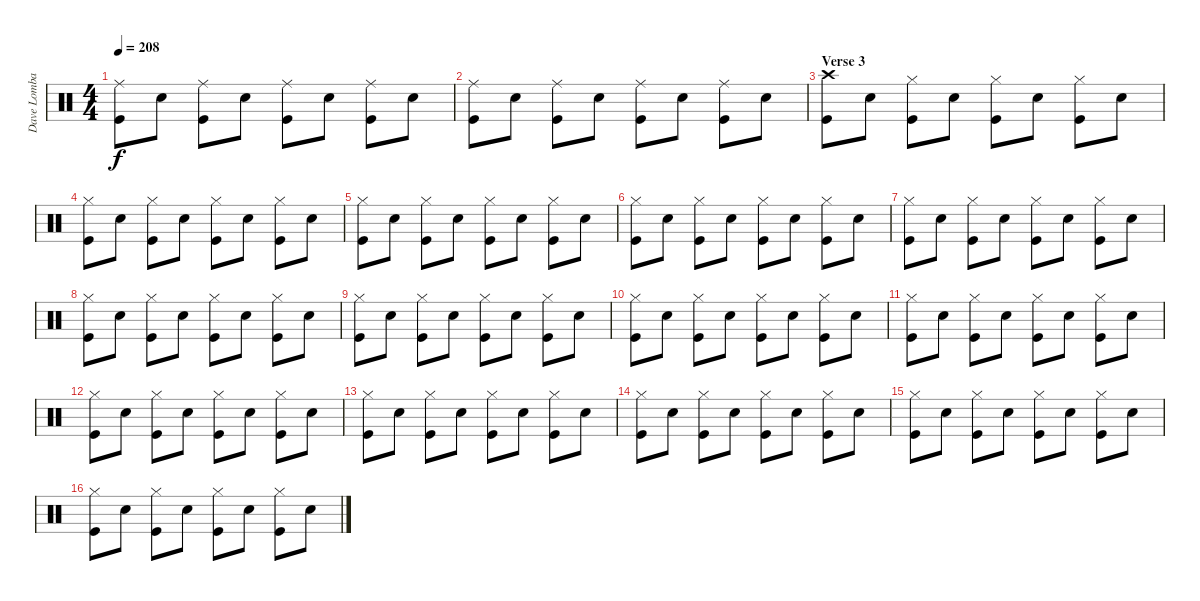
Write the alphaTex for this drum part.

\track ("Dave Lombardo" "Dave Lomba") {instrument percussion}
\staff {score}
\articulation defaults
\ts (4 4)
\tempo 208
\clef neutral
\ks c
("Ride (middle)" "Kick (hit)").8{dy f} "Electric Snare (hit)".8 ("Ride (middle)" "Kick (hit)").8 "Electric Snare (hit)".8 ("Ride (middle)" "Kick (hit)").8 "Electric Snare (hit)".8 ("Ride (middle)" "Kick (hit)").8 "Electric Snare (hit)".8 |
("Ride (middle)" "Kick (hit)").8 "Electric Snare (hit)".8 ("Ride (middle)" "Kick (hit)").8 "Electric Snare (hit)".8 ("Ride (middle)" "Kick (hit)").8 "Electric Snare (hit)".8 ("Ride (middle)" "Kick (hit)").8 "Electric Snare (hit)".8 |
\section ("" "Verse 3")
("Crash high (hit)" "Kick (hit)").8 "Electric Snare (hit)".8 ("Hi-Hat (closed)" "Kick (hit)").8 "Electric Snare (hit)".8 ("Hi-Hat (closed)" "Kick (hit)").8 "Electric Snare (hit)".8 ("Hi-Hat (closed)" "Kick (hit)").8 "Electric Snare (hit)".8 |
("Hi-Hat (closed)" "Kick (hit)").8 "Electric Snare (hit)".8 ("Hi-Hat (closed)" "Kick (hit)").8 "Electric Snare (hit)".8 ("Hi-Hat (closed)" "Kick (hit)").8 "Electric Snare (hit)".8 ("Hi-Hat (closed)" "Kick (hit)").8 "Electric Snare (hit)".8 |
("Hi-Hat (closed)" "Kick (hit)").8 "Electric Snare (hit)".8 ("Hi-Hat (closed)" "Kick (hit)").8 "Electric Snare (hit)".8 ("Hi-Hat (closed)" "Kick (hit)").8 "Electric Snare (hit)".8 ("Hi-Hat (closed)" "Kick (hit)").8 "Electric Snare (hit)".8 |
("Hi-Hat (closed)" "Kick (hit)").8 "Electric Snare (hit)".8 ("Hi-Hat (closed)" "Kick (hit)").8 "Electric Snare (hit)".8 ("Hi-Hat (closed)" "Kick (hit)").8 "Electric Snare (hit)".8 ("Hi-Hat (closed)" "Kick (hit)").8 "Electric Snare (hit)".8 |
("Hi-Hat (closed)" "Kick (hit)").8 "Electric Snare (hit)".8 ("Hi-Hat (closed)" "Kick (hit)").8 "Electric Snare (hit)".8 ("Hi-Hat (closed)" "Kick (hit)").8 "Electric Snare (hit)".8 ("Hi-Hat (closed)" "Kick (hit)").8 "Electric Snare (hit)".8 |
("Hi-Hat (closed)" "Kick (hit)").8 "Electric Snare (hit)".8 ("Hi-Hat (closed)" "Kick (hit)").8 "Electric Snare (hit)".8 ("Hi-Hat (closed)" "Kick (hit)").8 "Electric Snare (hit)".8 ("Hi-Hat (closed)" "Kick (hit)").8 "Electric Snare (hit)".8 |
("Hi-Hat (closed)" "Kick (hit)").8 "Electric Snare (hit)".8 ("Hi-Hat (closed)" "Kick (hit)").8 "Electric Snare (hit)".8 ("Hi-Hat (closed)" "Kick (hit)").8 "Electric Snare (hit)".8 ("Hi-Hat (closed)" "Kick (hit)").8 "Electric Snare (hit)".8 |
("Hi-Hat (closed)" "Kick (hit)").8 "Electric Snare (hit)".8 ("Hi-Hat (closed)" "Kick (hit)").8 "Electric Snare (hit)".8 ("Hi-Hat (closed)" "Kick (hit)").8 "Electric Snare (hit)".8 ("Hi-Hat (closed)" "Kick (hit)").8 "Electric Snare (hit)".8 |
("Hi-Hat (closed)" "Kick (hit)").8 "Electric Snare (hit)".8 ("Hi-Hat (closed)" "Kick (hit)").8 "Electric Snare (hit)".8 ("Hi-Hat (closed)" "Kick (hit)").8 "Electric Snare (hit)".8 ("Hi-Hat (closed)" "Kick (hit)").8 "Electric Snare (hit)".8 |
("Hi-Hat (closed)" "Kick (hit)").8 "Electric Snare (hit)".8 ("Hi-Hat (closed)" "Kick (hit)").8 "Electric Snare (hit)".8 ("Hi-Hat (closed)" "Kick (hit)").8 "Electric Snare (hit)".8 ("Hi-Hat (closed)" "Kick (hit)").8 "Electric Snare (hit)".8 |
("Hi-Hat (closed)" "Kick (hit)").8 "Electric Snare (hit)".8 ("Hi-Hat (closed)" "Kick (hit)").8 "Electric Snare (hit)".8 ("Hi-Hat (closed)" "Kick (hit)").8 "Electric Snare (hit)".8 ("Hi-Hat (closed)" "Kick (hit)").8 "Electric Snare (hit)".8 |
("Hi-Hat (closed)" "Kick (hit)").8 "Electric Snare (hit)".8 ("Hi-Hat (closed)" "Kick (hit)").8 "Electric Snare (hit)".8 ("Hi-Hat (closed)" "Kick (hit)").8 "Electric Snare (hit)".8 ("Hi-Hat (closed)" "Kick (hit)").8 "Electric Snare (hit)".8 |
("Hi-Hat (closed)" "Kick (hit)").8 "Electric Snare (hit)".8 ("Hi-Hat (closed)" "Kick (hit)").8 "Electric Snare (hit)".8 ("Hi-Hat (closed)" "Kick (hit)").8 "Electric Snare (hit)".8 ("Hi-Hat (closed)" "Kick (hit)").8 "Electric Snare (hit)".8 |
("Hi-Hat (closed)" "Kick (hit)").8 "Electric Snare (hit)".8 ("Hi-Hat (closed)" "Kick (hit)").8 "Electric Snare (hit)".8 ("Hi-Hat (closed)" "Kick (hit)").8 "Electric Snare (hit)".8 ("Hi-Hat (closed)" "Kick (hit)").8 "Electric Snare (hit)".8
